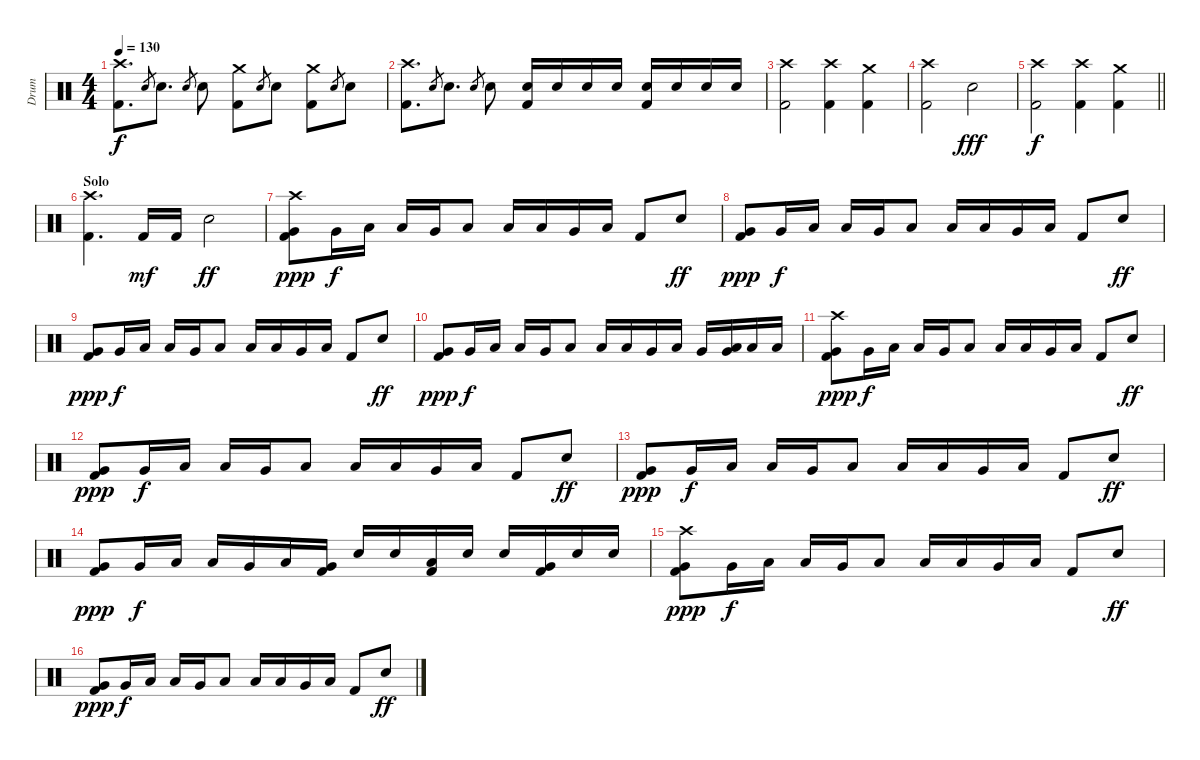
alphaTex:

\track ("Drum" "Drum") {instrument percussion}
\staff {score}
\articulation defaults
\ts (4 4)
\tempo 130
\clef neutral
\ks c
("Crash high (hit)" "Kick (hit) 2").8{d dy f} "Electric Snare (hit)".8{gr} "Electric Snare (hit)".8{d} "Electric Snare (hit)".8{gr} "Electric Snare (hit)".8 ("Kick (hit) 2" "Crash medium (hit)").8 "Electric Snare (hit)".8{gr} "Electric Snare (hit)".8 ("Kick (hit) 2" "Crash medium (hit)").8 "Electric Snare (hit)".8{gr} "Electric Snare (hit)".8 |
("Crash high (hit)" "Kick (hit) 2").8{d} "Electric Snare (hit)".8{gr} "Electric Snare (hit)".8{d} "Electric Snare (hit)".8{gr} "Electric Snare (hit)".8 ("Electric Snare (hit)" "Kick (hit) 2").16 "Electric Snare (hit)".16 "Electric Snare (hit)".16 "Electric Snare (hit)".16 ("Electric Snare (hit)" "Kick (hit) 2").16 "Electric Snare (hit)".16 "Electric Snare (hit)".16 "Electric Snare (hit)".16 |
("Crash high (hit)" "Kick (hit) 2").2 ("Kick (hit) 2" "Crash high (hit)").4 ("Kick (hit) 2" "Crash medium (hit)").4 |
("Kick (hit) 2" "Crash high (hit)").2 "Electric Snare (hit)".2{dy fff} |
\barLineRight lightlight
("Crash high (hit)" "Kick (hit) 2").2{dy f} ("Kick (hit) 2" "Crash high (hit)").4 ("Kick (hit) 2" "Crash medium (hit)").4 |
\section ("" "Solo")
("Kick (hit) 2" "Crash high (hit)").4{d} "Kick (hit) 2".16{dy mf} "Kick (hit) 2".16 "Electric Snare (hit)".2{dy ff} |
("Crash high (hit)" "Very Low Tom (hit)" "Kick (hit) 2").8{dy ppp} "Very Low Tom (hit)".16{dy f} "Low Tom (hit)".16 "Low Tom (hit)".16 "Very Low Tom (hit)".16 "Low Tom (hit)".8 "Low Floor Tom (hit)".16 "Low Tom (hit)".16 "Very Low Tom (hit)".16 "Low Floor Tom (hit)".16 "Kick (hit) 2".8 "Electric Snare (hit)".8{dy ff} |
("Very Low Tom (hit)" "Kick (hit) 2").8{dy ppp} "Very Low Tom (hit)".16{dy f} "Low Tom (hit)".16 "Low Tom (hit)".16 "Very Low Tom (hit)".16 "Low Tom (hit)".8 "Low Floor Tom (hit)".16 "Low Tom (hit)".16 "Very Low Tom (hit)".16 "Low Floor Tom (hit)".16 "Kick (hit) 2".8 "Electric Snare (hit)".8{dy ff} |
("Very Low Tom (hit)" "Kick (hit) 2").8{dy ppp} "Very Low Tom (hit)".16{dy f} "Low Tom (hit)".16 "Low Tom (hit)".16 "Very Low Tom (hit)".16 "Low Tom (hit)".8 "Low Floor Tom (hit)".16 "Low Tom (hit)".16 "Very Low Tom (hit)".16 "Low Floor Tom (hit)".16 "Kick (hit) 2".8 "Electric Snare (hit)".8{dy ff} |
("Very Low Tom (hit)" "Kick (hit) 2").8{dy ppp} "Very Low Tom (hit)".16{dy f} "Low Tom (hit)".16 "Low Tom (hit)".16 "Very Low Tom (hit)".16 "Low Tom (hit)".8 "Low Floor Tom (hit)".16 "Low Tom (hit)".16 "Very Low Tom (hit)".16 "Low Floor Tom (hit)".16 "Very Low Tom (hit)".16 ("Low Floor Tom (hit)" "Very Low Tom (hit)").16 "Low Floor Tom (hit)".16 "Low Floor Tom (hit)".16 |
("Crash high (hit)" "Very Low Tom (hit)" "Kick (hit) 2").8{dy ppp} "Very Low Tom (hit)".16{dy f} "Low Tom (hit)".16 "Low Tom (hit)".16 "Very Low Tom (hit)".16 "Low Tom (hit)".8 "Low Floor Tom (hit)".16 "Low Tom (hit)".16 "Very Low Tom (hit)".16 "Low Floor Tom (hit)".16 "Kick (hit) 2".8 "Electric Snare (hit)".8{dy ff} |
("Very Low Tom (hit)" "Kick (hit) 2").8{dy ppp} "Very Low Tom (hit)".16{dy f} "Low Tom (hit)".16 "Low Tom (hit)".16 "Very Low Tom (hit)".16 "Low Tom (hit)".8 "Low Floor Tom (hit)".16 "Low Tom (hit)".16 "Very Low Tom (hit)".16 "Low Floor Tom (hit)".16 "Kick (hit) 2".8 "Electric Snare (hit)".8{dy ff} |
("Very Low Tom (hit)" "Kick (hit) 2").8{dy ppp} "Very Low Tom (hit)".16{dy f} "Low Tom (hit)".16 "Low Tom (hit)".16 "Very Low Tom (hit)".16 "Low Tom (hit)".8 "Low Floor Tom (hit)".16 "Low Tom (hit)".16 "Very Low Tom (hit)".16 "Low Floor Tom (hit)".16 "Kick (hit) 2".8 "Electric Snare (hit)".8{dy ff} |
("Very Low Tom (hit)" "Kick (hit) 2").8{dy ppp} "Very Low Tom (hit)".16{dy f} "Low Tom (hit)".16 "Low Tom (hit)".16 "Very Low Tom (hit)".16 "Low Tom (hit)".16 ("Kick (hit) 2" "Very Low Tom (hit)").16 "Electric Snare (hit)".16 "Electric Snare (hit)".16 ("Kick (hit) 2" "Low Floor Tom (hit)").16 "Electric Snare (hit)".16 "Electric Snare (hit)".16 ("Kick (hit) 2" "Very Low Tom (hit)").16 "Electric Snare (hit)".16 "Electric Snare (hit)".16 |
("Crash high (hit)" "Very Low Tom (hit)" "Kick (hit) 2").8{dy ppp} "Very Low Tom (hit)".16{dy f} "Low Tom (hit)".16 "Low Tom (hit)".16 "Very Low Tom (hit)".16 "Low Tom (hit)".8 "Low Floor Tom (hit)".16 "Low Tom (hit)".16 "Very Low Tom (hit)".16 "Low Floor Tom (hit)".16 "Kick (hit) 2".8 "Electric Snare (hit)".8{dy ff} |
("Very Low Tom (hit)" "Kick (hit) 2").8{dy ppp} "Very Low Tom (hit)".16{dy f} "Low Tom (hit)".16 "Low Tom (hit)".16 "Very Low Tom (hit)".16 "Low Tom (hit)".8 "Low Floor Tom (hit)".16 "Low Tom (hit)".16 "Very Low Tom (hit)".16 "Low Floor Tom (hit)".16 "Kick (hit) 2".8 "Electric Snare (hit)".8{dy ff}
